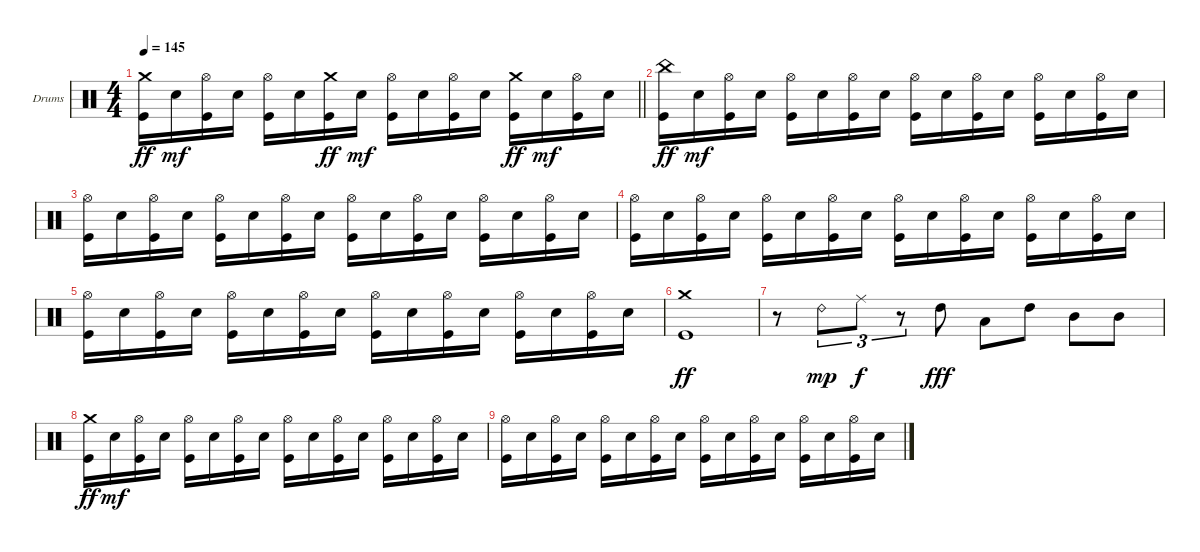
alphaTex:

\defaultSystemsLayout 4
\bracketExtendMode groupsimilarinstruments
\firstSystemTrackNameOrientation horizontal
\otherSystemsTrackNameOrientation horizontal
\track ("Drums" "Drums") {instrument percussion}
\staff {score}
\articulation defaults
\ts (4 4)
\tempo 145
\clef neutral
\barLineRight lightlight
\ks c
("Kick (hit)" "Crash medium (hit)").16{dy ff} "Snare (hit) 2".16{dy mf} ("Kick (hit)" "Hi-Hat (open)").16 "Snare (hit) 2".16 ("Kick (hit)" "Hi-Hat (open)").16 "Snare (hit) 2".16 ("Kick (hit)" "Crash medium (hit)").16{dy ff} "Snare (hit) 2".16{dy mf} ("Kick (hit)" "Hi-Hat (open)").16 "Snare (hit) 2".16 ("Kick (hit)" "Hi-Hat (open)").16 "Snare (hit) 2".16 ("Kick (hit)" "Crash medium (hit)").16{dy ff} "Snare (hit) 2".16{dy mf} ("Kick (hit)" "Hi-Hat (open)").16 "Snare (hit) 2".16 |
("Kick (hit)" "China (hit)").16{dy ff} "Snare (hit) 2".16{dy mf} ("Kick (hit)" "Hi-Hat (open)").16 "Snare (hit) 2".16 ("Kick (hit)" "Hi-Hat (open)").16 "Snare (hit) 2".16 ("Kick (hit)" "Hi-Hat (open)").16 "Snare (hit) 2".16 ("Kick (hit)" "Hi-Hat (open)").16 "Snare (hit) 2".16 ("Kick (hit)" "Hi-Hat (open)").16 "Snare (hit) 2".16 ("Kick (hit)" "Hi-Hat (open)").16 "Snare (hit) 2".16 ("Kick (hit)" "Hi-Hat (open)").16 "Snare (hit) 2".16 |
("Kick (hit)" "Hi-Hat (open)").16 "Snare (hit) 2".16 ("Kick (hit)" "Hi-Hat (open)").16 "Snare (hit) 2".16 ("Kick (hit)" "Hi-Hat (open)").16 "Snare (hit) 2".16 ("Kick (hit)" "Hi-Hat (open)").16 "Snare (hit) 2".16 ("Kick (hit)" "Hi-Hat (open)").16 "Snare (hit) 2".16 ("Kick (hit)" "Hi-Hat (open)").16 "Snare (hit) 2".16 ("Kick (hit)" "Hi-Hat (open)").16 "Snare (hit) 2".16 ("Kick (hit)" "Hi-Hat (open)").16 "Snare (hit) 2".16 |
("Kick (hit)" "Hi-Hat (open)").16 "Snare (hit) 2".16 ("Kick (hit)" "Hi-Hat (open)").16 "Snare (hit) 2".16 ("Kick (hit)" "Hi-Hat (open)").16 "Snare (hit) 2".16 ("Kick (hit)" "Hi-Hat (open)").16 "Snare (hit) 2".16 ("Kick (hit)" "Hi-Hat (open)").16 "Snare (hit) 2".16 ("Kick (hit)" "Hi-Hat (open)").16 "Snare (hit) 2".16 ("Kick (hit)" "Hi-Hat (open)").16 "Snare (hit) 2".16 ("Kick (hit)" "Hi-Hat (open)").16 "Snare (hit) 2".16 |
("Kick (hit)" "Hi-Hat (open)").16 "Snare (hit) 2".16 ("Kick (hit)" "Hi-Hat (open)").16 "Snare (hit) 2".16 ("Kick (hit)" "Hi-Hat (open)").16 "Snare (hit) 2".16 ("Kick (hit)" "Hi-Hat (open)").16 "Snare (hit) 2".16 ("Kick (hit)" "Hi-Hat (open)").16 "Snare (hit) 2".16 ("Kick (hit)" "Hi-Hat (open)").16 "Snare (hit) 2".16 ("Kick (hit)" "Hi-Hat (open)").16 "Snare (hit) 2".16 ("Kick (hit)" "Hi-Hat (open)").16 "Snare (hit) 2".16 |
("Kick (hit)" "Crash medium (hit)").1{dy ff} |
r.8 "Ride (bell) 2".8{tu (3 2) dy mp} "Ride (middle)".8{tu (3 2) dy f} r.8{tu (3 2)} "High Tom (hit)".8{dy fff} "Low Tom (hit)".8 "High Tom (hit)".8 "Mid Tom (hit)".8 "Mid Tom (hit)".8 |
("Kick (hit)" "Crash medium (hit)").16{dy ff} "Snare (hit) 2".16{dy mf} ("Kick (hit)" "Hi-Hat (open)").16 "Snare (hit) 2".16 ("Kick (hit)" "Hi-Hat (open)").16 "Snare (hit) 2".16 ("Kick (hit)" "Hi-Hat (open)").16 "Snare (hit) 2".16 ("Kick (hit)" "Hi-Hat (open)").16 "Snare (hit) 2".16 ("Kick (hit)" "Hi-Hat (open)").16 "Snare (hit) 2".16 ("Kick (hit)" "Hi-Hat (open)").16 "Snare (hit) 2".16 ("Kick (hit)" "Hi-Hat (open)").16 "Snare (hit) 2".16 |
("Kick (hit)" "Hi-Hat (open)").16 "Snare (hit) 2".16 ("Kick (hit)" "Hi-Hat (open)").16 "Snare (hit) 2".16 ("Kick (hit)" "Hi-Hat (open)").16 "Snare (hit) 2".16 ("Kick (hit)" "Hi-Hat (open)").16 "Snare (hit) 2".16 ("Kick (hit)" "Hi-Hat (open)").16 "Snare (hit) 2".16 ("Kick (hit)" "Hi-Hat (open)").16 "Snare (hit) 2".16 ("Kick (hit)" "Hi-Hat (open)").16 "Snare (hit) 2".16 ("Kick (hit)" "Hi-Hat (open)").16 "Snare (hit) 2".16
